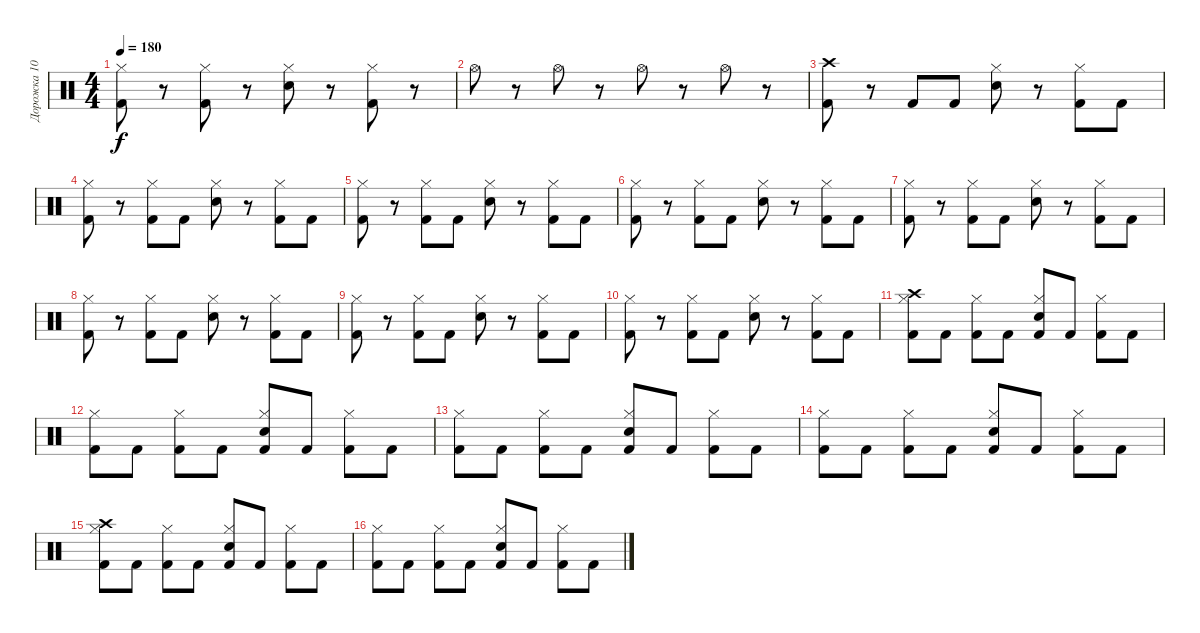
\track ("Дорожка 10" "Дорожка 10") {instrument percussion}
\staff {score}
\articulation defaults
\ts (4 4)
\tempo 180
\clef neutral
\ks c
("Kick (hit) 2" "Hi-Hat (closed)").8{dy f} r.8 ("Kick (hit) 2" "Hi-Hat (closed)").8 r.8 ("Snare (hit) 2" "Hi-Hat (closed)").8 r.8 ("Kick (hit) 2" "Hi-Hat (closed)").8 r.8 |
"Hi-Hat (open)".8 r.8 "Hi-Hat (open)".8 r.8 "Hi-Hat (open)".8 r.8 "Hi-Hat (open)".8 r.8 |
("Kick (hit) 2" "Crash high (hit)").8 r.8 "Kick (hit) 2".8 "Kick (hit) 2".8 ("Snare (hit) 2" "Hi-Hat (closed)").8 r.8 ("Kick (hit) 2" "Hi-Hat (closed)").8 "Kick (hit) 2".8 |
("Kick (hit) 2" "Hi-Hat (closed)").8 r.8 ("Kick (hit) 2" "Hi-Hat (closed)").8 "Kick (hit) 2".8 ("Snare (hit) 2" "Hi-Hat (closed)").8 r.8 ("Kick (hit) 2" "Hi-Hat (closed)").8 "Kick (hit) 2".8 |
("Kick (hit) 2" "Hi-Hat (closed)").8 r.8 ("Kick (hit) 2" "Hi-Hat (closed)").8 "Kick (hit) 2".8 ("Snare (hit) 2" "Hi-Hat (closed)").8 r.8 ("Kick (hit) 2" "Hi-Hat (closed)").8 "Kick (hit) 2".8 |
("Kick (hit) 2" "Hi-Hat (closed)").8 r.8 ("Kick (hit) 2" "Hi-Hat (closed)").8 "Kick (hit) 2".8 ("Snare (hit) 2" "Hi-Hat (closed)").8 r.8 ("Kick (hit) 2" "Hi-Hat (closed)").8 "Kick (hit) 2".8 |
("Kick (hit) 2" "Hi-Hat (closed)").8 r.8 ("Kick (hit) 2" "Hi-Hat (closed)").8 "Kick (hit) 2".8 ("Snare (hit) 2" "Hi-Hat (closed)").8 r.8 ("Kick (hit) 2" "Hi-Hat (closed)").8 "Kick (hit) 2".8 |
("Kick (hit) 2" "Hi-Hat (closed)").8 r.8 ("Kick (hit) 2" "Hi-Hat (closed)").8 "Kick (hit) 2".8 ("Snare (hit) 2" "Hi-Hat (closed)").8 r.8 ("Kick (hit) 2" "Hi-Hat (closed)").8 "Kick (hit) 2".8 |
("Kick (hit) 2" "Hi-Hat (closed)").8 r.8 ("Kick (hit) 2" "Hi-Hat (closed)").8 "Kick (hit) 2".8 ("Snare (hit) 2" "Hi-Hat (closed)").8 r.8 ("Kick (hit) 2" "Hi-Hat (closed)").8 "Kick (hit) 2".8 |
("Kick (hit) 2" "Hi-Hat (closed)").8 r.8 ("Kick (hit) 2" "Hi-Hat (closed)").8 "Kick (hit) 2".8 ("Snare (hit) 2" "Hi-Hat (closed)").8 r.8 ("Kick (hit) 2" "Hi-Hat (closed)").8 "Kick (hit) 2".8 |
("Kick (hit) 2" "Hi-Hat (closed)" "Crash high (hit)").8 "Kick (hit) 2".8 ("Kick (hit) 2" "Hi-Hat (closed)").8 "Kick (hit) 2".8 ("Snare (hit) 2" "Kick (hit) 2" "Hi-Hat (closed)").8 "Kick (hit) 2".8 ("Kick (hit) 2" "Hi-Hat (closed)").8 "Kick (hit) 2".8 |
("Kick (hit) 2" "Hi-Hat (closed)").8 "Kick (hit) 2".8 ("Kick (hit) 2" "Hi-Hat (closed)").8 "Kick (hit) 2".8 ("Snare (hit) 2" "Kick (hit) 2" "Hi-Hat (closed)").8 "Kick (hit) 2".8 ("Kick (hit) 2" "Hi-Hat (closed)").8 "Kick (hit) 2".8 |
("Kick (hit) 2" "Hi-Hat (closed)").8 "Kick (hit) 2".8 ("Kick (hit) 2" "Hi-Hat (closed)").8 "Kick (hit) 2".8 ("Snare (hit) 2" "Kick (hit) 2" "Hi-Hat (closed)").8 "Kick (hit) 2".8 ("Kick (hit) 2" "Hi-Hat (closed)").8 "Kick (hit) 2".8 |
("Kick (hit) 2" "Hi-Hat (closed)").8 "Kick (hit) 2".8 ("Kick (hit) 2" "Hi-Hat (closed)").8 "Kick (hit) 2".8 ("Snare (hit) 2" "Kick (hit) 2" "Hi-Hat (closed)").8 "Kick (hit) 2".8 ("Kick (hit) 2" "Hi-Hat (closed)").8 "Kick (hit) 2".8 |
("Kick (hit) 2" "Hi-Hat (closed)" "Crash high (hit)").8 "Kick (hit) 2".8 ("Kick (hit) 2" "Hi-Hat (closed)").8 "Kick (hit) 2".8 ("Snare (hit) 2" "Kick (hit) 2" "Hi-Hat (closed)").8 "Kick (hit) 2".8 ("Kick (hit) 2" "Hi-Hat (closed)").8 "Kick (hit) 2".8 |
("Kick (hit) 2" "Hi-Hat (closed)").8 "Kick (hit) 2".8 ("Kick (hit) 2" "Hi-Hat (closed)").8 "Kick (hit) 2".8 ("Snare (hit) 2" "Kick (hit) 2" "Hi-Hat (closed)").8 "Kick (hit) 2".8 ("Kick (hit) 2" "Hi-Hat (closed)").8 "Kick (hit) 2".8
